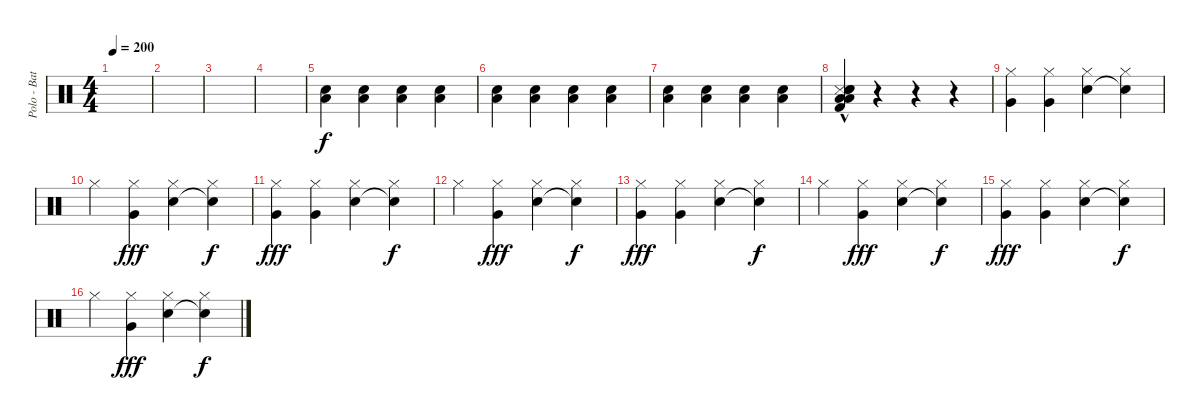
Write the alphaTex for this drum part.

\track ("Polo - Batería" "Polo - Bat") {instrument percussion}
\staff {score}
\articulation defaults
\ts (4 4)
\tempo 200
\clef neutral
\ks c
|
|
|
|
("Low Floor Tom (hit)" "Electric Snare (hit)").4{volume 16} ("Low Floor Tom (hit)" "Electric Snare (hit)").4 ("Low Floor Tom (hit)" "Electric Snare (hit)").4 ("Low Floor Tom (hit)" "Electric Snare (hit)").4 |
("Low Floor Tom (hit)" "Electric Snare (hit)").4 ("Low Floor Tom (hit)" "Electric Snare (hit)").4 ("Low Floor Tom (hit)" "Electric Snare (hit)").4 ("Low Floor Tom (hit)" "Electric Snare (hit)").4 |
("Low Floor Tom (hit)" "Electric Snare (hit)").4 ("Low Floor Tom (hit)" "Electric Snare (hit)").4 ("Low Floor Tom (hit)" "Electric Snare (hit)").4 ("Low Floor Tom (hit)" "Electric Snare (hit)").4 |
("Metronome (hit)"{hac} "Kick (hit) 2"{hac} "Electric Snare (hit)"{hac} "Low Floor Tom (hit)" "Low Floor Tom (hit)"{hac} "Electric Snare (hit)"{hac}).4{volume 16} r.4 r.4 r.4 |
("Hi-Hat (closed)" "Very Low Tom (hit)").4{volume 16} ("Hi-Hat (closed)" "Very Low Tom (hit)").4 ("Hi-Hat (closed)" "Electric Snare (hit)").4 ("Hi-Hat (closed)" "Snare (hit)"{t}).4{dy f} |
"Hi-Hat (closed)".4 ("Hi-Hat (closed)" "Very Low Tom (hit)").4{dy fff} ("Hi-Hat (closed)" "Electric Snare (hit)").4 ("Hi-Hat (closed)" "Snare (hit)"{t}).4{dy f} |
("Hi-Hat (closed)" "Very Low Tom (hit)").4{dy fff} ("Hi-Hat (closed)" "Very Low Tom (hit)").4 ("Hi-Hat (closed)" "Electric Snare (hit)").4 ("Hi-Hat (closed)" "Snare (hit)"{t}).4{dy f} |
"Hi-Hat (closed)".4 ("Hi-Hat (closed)" "Very Low Tom (hit)").4{dy fff} ("Hi-Hat (closed)" "Electric Snare (hit)").4 ("Hi-Hat (closed)" "Snare (hit)"{t}).4{dy f} |
("Hi-Hat (closed)" "Very Low Tom (hit)").4{dy fff} ("Hi-Hat (closed)" "Very Low Tom (hit)").4 ("Hi-Hat (closed)" "Electric Snare (hit)").4 ("Hi-Hat (closed)" "Snare (hit)"{t}).4{dy f} |
"Hi-Hat (closed)".4 ("Hi-Hat (closed)" "Very Low Tom (hit)").4{dy fff} ("Hi-Hat (closed)" "Electric Snare (hit)").4 ("Hi-Hat (closed)" "Snare (hit)"{t}).4{dy f} |
("Hi-Hat (closed)" "Very Low Tom (hit)").4{dy fff} ("Hi-Hat (closed)" "Very Low Tom (hit)").4 ("Hi-Hat (closed)" "Electric Snare (hit)").4 ("Hi-Hat (closed)" "Snare (hit)"{t}).4{dy f} |
"Hi-Hat (closed)".4 ("Hi-Hat (closed)" "Very Low Tom (hit)").4{dy fff} ("Hi-Hat (closed)" "Electric Snare (hit)").4 ("Hi-Hat (closed)" "Snare (hit)"{t}).4{dy f}
